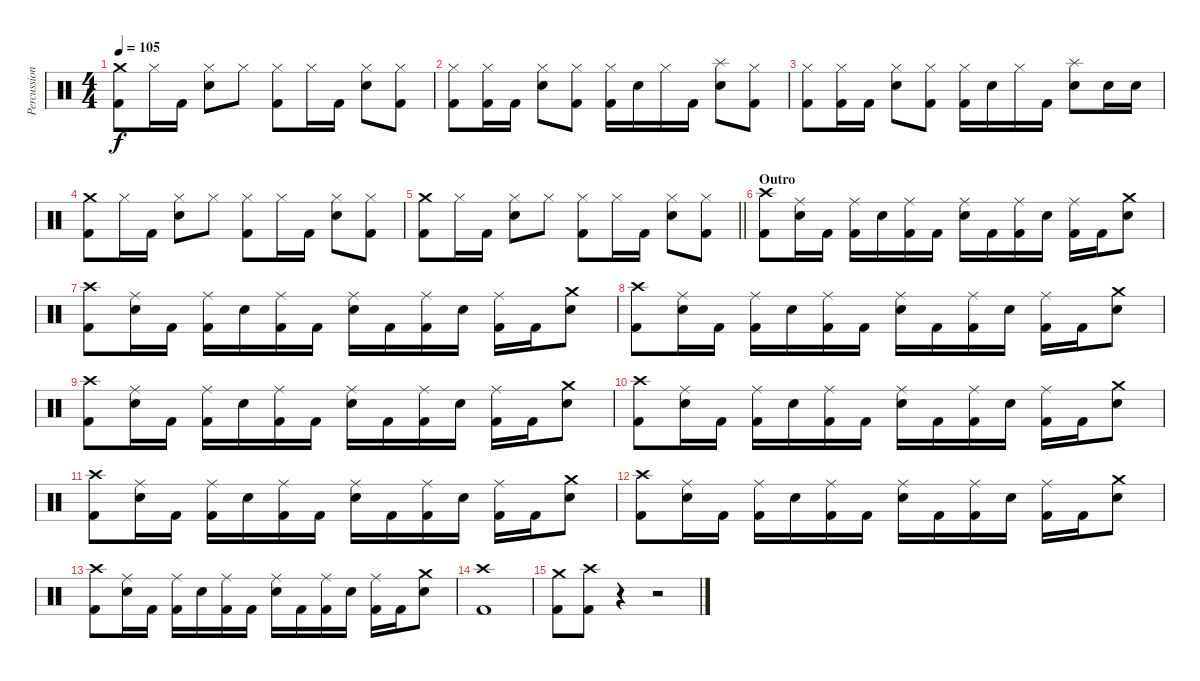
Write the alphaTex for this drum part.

\track ("Percussions" "Percussion") {instrument percussion}
\staff {score}
\articulation defaults
\ts (4 4)
\tempo 105
\clef neutral
\ks c
("Crash medium (hit)" "Kick (hit) 2").8{dy f} "Hi-Hat (closed)".16 "Kick (hit) 2".16 ("Hi-Hat (closed)" "Electric Snare (hit)").8 "Hi-Hat (closed)".8 ("Hi-Hat (closed)" "Kick (hit) 2").8 "Hi-Hat (closed)".16 "Kick (hit) 2".16 ("Hi-Hat (closed)" "Electric Snare (hit)").8 ("Hi-Hat (closed)" "Kick (hit) 2").8 |
("Hi-Hat (closed)" "Kick (hit) 2").8 ("Hi-Hat (closed)" "Kick (hit) 2").16 "Kick (hit) 2".16 ("Hi-Hat (closed)" "Electric Snare (hit)").8 ("Hi-Hat (closed)" "Kick (hit) 2").8 ("Hi-Hat (closed)" "Kick (hit) 2").16 "Electric Snare (hit)".16 "Hi-Hat (closed)".16 "Kick (hit) 2".16 ("Splash (hit)" "Electric Snare (hit)").8 ("Hi-Hat (closed)" "Kick (hit) 2").8 |
("Hi-Hat (closed)" "Kick (hit) 2").8 ("Hi-Hat (closed)" "Kick (hit) 2").16 "Kick (hit) 2".16 ("Hi-Hat (closed)" "Electric Snare (hit)").8 ("Hi-Hat (closed)" "Kick (hit) 2").8 ("Hi-Hat (closed)" "Kick (hit) 2").16 "Electric Snare (hit)".16 "Hi-Hat (closed)".16 "Kick (hit) 2".16 ("Splash (hit)" "Electric Snare (hit)").8 "Electric Snare (hit)".16 "Electric Snare (hit)".16 |
("Crash medium (hit)" "Kick (hit) 2").8 "Hi-Hat (closed)".16 "Kick (hit) 2".16 ("Hi-Hat (closed)" "Electric Snare (hit)").8 "Hi-Hat (closed)".8 ("Hi-Hat (closed)" "Kick (hit) 2").8 "Hi-Hat (closed)".16 "Kick (hit) 2".16 ("Hi-Hat (closed)" "Electric Snare (hit)").8 ("Hi-Hat (closed)" "Kick (hit) 2").8 |
\barLineRight lightlight
("Crash medium (hit)" "Kick (hit) 2").8 "Hi-Hat (closed)".16 "Kick (hit) 2".16 ("Hi-Hat (closed)" "Electric Snare (hit)").8 "Hi-Hat (closed)".8 ("Hi-Hat (closed)" "Kick (hit) 2").8 "Hi-Hat (closed)".16 "Kick (hit) 2".16 ("Hi-Hat (closed)" "Electric Snare (hit)").8 ("Hi-Hat (closed)" "Kick (hit) 2").8 |
\section ("" "Outro")
("Crash high (hit)" "Kick (hit) 2").8 ("Ride (middle)" "Electric Snare (hit)").16 "Kick (hit) 2".16 ("Ride (middle)" "Kick (hit) 2").16 "Electric Snare (hit)".16 ("Ride (middle)" "Kick (hit) 2").16 "Kick (hit) 2".16 ("Ride (middle)" "Electric Snare (hit)").16 "Kick (hit) 2".16 ("Ride (middle)" "Kick (hit) 2").16 "Electric Snare (hit)".16 ("Ride (middle)" "Kick (hit) 2").16 "Kick (hit) 2".16 ("Crash medium (hit)" "Electric Snare (hit)").8 |
("Crash high (hit)" "Kick (hit) 2").8 ("Ride (middle)" "Electric Snare (hit)").16 "Kick (hit) 2".16 ("Ride (middle)" "Kick (hit) 2").16 "Electric Snare (hit)".16 ("Ride (middle)" "Kick (hit) 2").16 "Kick (hit) 2".16 ("Ride (middle)" "Electric Snare (hit)").16 "Kick (hit) 2".16 ("Ride (middle)" "Kick (hit) 2").16 "Electric Snare (hit)".16 ("Ride (middle)" "Kick (hit) 2").16 "Kick (hit) 2".16 ("Crash medium (hit)" "Electric Snare (hit)").8 |
("Crash high (hit)" "Kick (hit) 2").8 ("Ride (middle)" "Electric Snare (hit)").16 "Kick (hit) 2".16 ("Ride (middle)" "Kick (hit) 2").16 "Electric Snare (hit)".16 ("Ride (middle)" "Kick (hit) 2").16 "Kick (hit) 2".16 ("Ride (middle)" "Electric Snare (hit)").16 "Kick (hit) 2".16 ("Ride (middle)" "Kick (hit) 2").16 "Electric Snare (hit)".16 ("Ride (middle)" "Kick (hit) 2").16 "Kick (hit) 2".16 ("Crash medium (hit)" "Electric Snare (hit)").8 |
("Crash high (hit)" "Kick (hit) 2").8 ("Ride (middle)" "Electric Snare (hit)").16 "Kick (hit) 2".16 ("Ride (middle)" "Kick (hit) 2").16 "Electric Snare (hit)".16 ("Ride (middle)" "Kick (hit) 2").16 "Kick (hit) 2".16 ("Ride (middle)" "Electric Snare (hit)").16 "Kick (hit) 2".16 ("Ride (middle)" "Kick (hit) 2").16 "Electric Snare (hit)".16 ("Ride (middle)" "Kick (hit) 2").16 "Kick (hit) 2".16 ("Crash medium (hit)" "Electric Snare (hit)").8 |
("Crash high (hit)" "Kick (hit) 2").8 ("Ride (middle)" "Electric Snare (hit)").16 "Kick (hit) 2".16 ("Ride (middle)" "Kick (hit) 2").16 "Electric Snare (hit)".16 ("Ride (middle)" "Kick (hit) 2").16 "Kick (hit) 2".16 ("Ride (middle)" "Electric Snare (hit)").16 "Kick (hit) 2".16 ("Ride (middle)" "Kick (hit) 2").16 "Electric Snare (hit)".16 ("Ride (middle)" "Kick (hit) 2").16 "Kick (hit) 2".16 ("Crash medium (hit)" "Electric Snare (hit)").8 |
("Crash high (hit)" "Kick (hit) 2").8 ("Ride (middle)" "Electric Snare (hit)").16 "Kick (hit) 2".16 ("Ride (middle)" "Kick (hit) 2").16 "Electric Snare (hit)".16 ("Ride (middle)" "Kick (hit) 2").16 "Kick (hit) 2".16 ("Ride (middle)" "Electric Snare (hit)").16 "Kick (hit) 2".16 ("Ride (middle)" "Kick (hit) 2").16 "Electric Snare (hit)".16 ("Ride (middle)" "Kick (hit) 2").16 "Kick (hit) 2".16 ("Crash medium (hit)" "Electric Snare (hit)").8 |
("Crash high (hit)" "Kick (hit) 2").8 ("Ride (middle)" "Electric Snare (hit)").16 "Kick (hit) 2".16 ("Ride (middle)" "Kick (hit) 2").16 "Electric Snare (hit)".16 ("Ride (middle)" "Kick (hit) 2").16 "Kick (hit) 2".16 ("Ride (middle)" "Electric Snare (hit)").16 "Kick (hit) 2".16 ("Ride (middle)" "Kick (hit) 2").16 "Electric Snare (hit)".16 ("Ride (middle)" "Kick (hit) 2").16 "Kick (hit) 2".16 ("Crash medium (hit)" "Electric Snare (hit)").8 |
("Crash high (hit)" "Kick (hit) 2").8 ("Ride (middle)" "Electric Snare (hit)").16 "Kick (hit) 2".16 ("Ride (middle)" "Kick (hit) 2").16 "Electric Snare (hit)".16 ("Ride (middle)" "Kick (hit) 2").16 "Kick (hit) 2".16 ("Ride (middle)" "Electric Snare (hit)").16 "Kick (hit) 2".16 ("Ride (middle)" "Kick (hit) 2").16 "Electric Snare (hit)".16 ("Ride (middle)" "Kick (hit) 2").16 "Kick (hit) 2".16 ("Crash medium (hit)" "Electric Snare (hit)").8 |
("Crash high (hit)" "Kick (hit) 2").1 |
("Crash medium (hit)" "Kick (hit) 2").8 ("Crash high (hit)" "Kick (hit) 2").8 r.4 r.2
